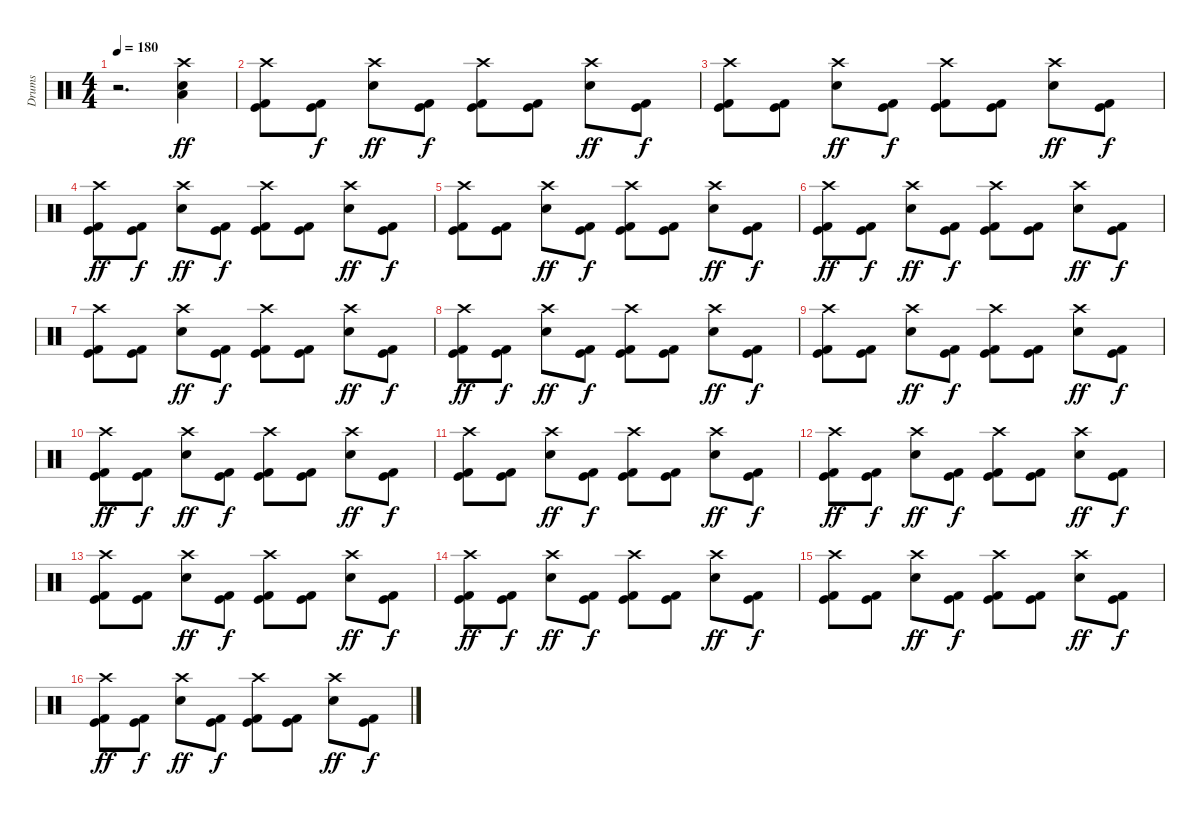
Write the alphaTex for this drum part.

\track ("Drums" "Drums") {instrument percussion}
\staff {score}
\articulation defaults
\ts (4 4)
\tempo 180
\clef neutral
\ks c
r.2{d dy fff} ("Crash high (hit)" "Snare (hit) 2" "Low Tom (hit)").4{dy ff} |
("Crash high (hit)" "Kick (hit)" "Kick (hit) 2").8 ("Kick (hit)" "Kick (hit) 2").8{dy f} ("Crash high (hit)" "Snare (hit) 2").8{dy ff} ("Kick (hit)" "Kick (hit) 2").8{dy f} ("Crash high (hit)" "Kick (hit)" "Kick (hit) 2").8 ("Kick (hit)" "Kick (hit) 2").8 ("Crash high (hit)" "Snare (hit) 2").8{dy ff} ("Kick (hit)" "Kick (hit) 2").8{dy f} |
("Crash high (hit)" "Kick (hit)" "Kick (hit) 2").8 ("Kick (hit)" "Kick (hit) 2").8 ("Crash high (hit)" "Snare (hit) 2").8{dy ff} ("Kick (hit)" "Kick (hit) 2").8{dy f} ("Crash high (hit)" "Kick (hit)" "Kick (hit) 2").8 ("Kick (hit)" "Kick (hit) 2").8 ("Crash high (hit)" "Snare (hit) 2").8{dy ff} ("Kick (hit)" "Kick (hit) 2").8{dy f} |
("Crash high (hit)" "Kick (hit)" "Kick (hit) 2").8{dy ff} ("Kick (hit)" "Kick (hit) 2").8{dy f} ("Crash high (hit)" "Snare (hit) 2").8{dy ff} ("Kick (hit)" "Kick (hit) 2").8{dy f} ("Crash high (hit)" "Kick (hit)" "Kick (hit) 2").8 ("Kick (hit)" "Kick (hit) 2").8 ("Crash high (hit)" "Snare (hit) 2").8{dy ff} ("Kick (hit)" "Kick (hit) 2").8{dy f} |
("Crash high (hit)" "Kick (hit)" "Kick (hit) 2").8 ("Kick (hit)" "Kick (hit) 2").8 ("Crash high (hit)" "Snare (hit) 2").8{dy ff} ("Kick (hit)" "Kick (hit) 2").8{dy f} ("Crash high (hit)" "Kick (hit)" "Kick (hit) 2").8 ("Kick (hit)" "Kick (hit) 2").8 ("Crash high (hit)" "Snare (hit) 2").8{dy ff} ("Kick (hit)" "Kick (hit) 2").8{dy f} |
("Crash high (hit)" "Kick (hit)" "Kick (hit) 2").8{dy ff} ("Kick (hit)" "Kick (hit) 2").8{dy f} ("Crash high (hit)" "Snare (hit) 2").8{dy ff} ("Kick (hit)" "Kick (hit) 2").8{dy f} ("Crash high (hit)" "Kick (hit)" "Kick (hit) 2").8 ("Kick (hit)" "Kick (hit) 2").8 ("Crash high (hit)" "Snare (hit) 2").8{dy ff} ("Kick (hit)" "Kick (hit) 2").8{dy f} |
("Crash high (hit)" "Kick (hit)" "Kick (hit) 2").8 ("Kick (hit)" "Kick (hit) 2").8 ("Crash high (hit)" "Snare (hit) 2").8{dy ff} ("Kick (hit)" "Kick (hit) 2").8{dy f} ("Crash high (hit)" "Kick (hit)" "Kick (hit) 2").8 ("Kick (hit)" "Kick (hit) 2").8 ("Crash high (hit)" "Snare (hit) 2").8{dy ff} ("Kick (hit)" "Kick (hit) 2").8{dy f} |
("Crash high (hit)" "Kick (hit)" "Kick (hit) 2").8{dy ff} ("Kick (hit)" "Kick (hit) 2").8{dy f} ("Crash high (hit)" "Snare (hit) 2").8{dy ff} ("Kick (hit)" "Kick (hit) 2").8{dy f} ("Crash high (hit)" "Kick (hit)" "Kick (hit) 2").8 ("Kick (hit)" "Kick (hit) 2").8 ("Crash high (hit)" "Snare (hit) 2").8{dy ff} ("Kick (hit)" "Kick (hit) 2").8{dy f} |
("Crash high (hit)" "Kick (hit)" "Kick (hit) 2").8 ("Kick (hit)" "Kick (hit) 2").8 ("Crash high (hit)" "Snare (hit) 2").8{dy ff} ("Kick (hit)" "Kick (hit) 2").8{dy f} ("Crash high (hit)" "Kick (hit)" "Kick (hit) 2").8 ("Kick (hit)" "Kick (hit) 2").8 ("Crash high (hit)" "Snare (hit) 2").8{dy ff} ("Kick (hit)" "Kick (hit) 2").8{dy f} |
("Crash high (hit)" "Kick (hit)" "Kick (hit) 2").8{dy ff} ("Kick (hit)" "Kick (hit) 2").8{dy f} ("Crash high (hit)" "Snare (hit) 2").8{dy ff} ("Kick (hit)" "Kick (hit) 2").8{dy f} ("Crash high (hit)" "Kick (hit)" "Kick (hit) 2").8 ("Kick (hit)" "Kick (hit) 2").8 ("Crash high (hit)" "Snare (hit) 2").8{dy ff} ("Kick (hit)" "Kick (hit) 2").8{dy f} |
("Crash high (hit)" "Kick (hit)" "Kick (hit) 2").8 ("Kick (hit)" "Kick (hit) 2").8 ("Crash high (hit)" "Snare (hit) 2").8{dy ff} ("Kick (hit)" "Kick (hit) 2").8{dy f} ("Crash high (hit)" "Kick (hit)" "Kick (hit) 2").8 ("Kick (hit)" "Kick (hit) 2").8 ("Crash high (hit)" "Snare (hit) 2").8{dy ff} ("Kick (hit)" "Kick (hit) 2").8{dy f} |
("Crash high (hit)" "Kick (hit)" "Kick (hit) 2").8{dy ff} ("Kick (hit)" "Kick (hit) 2").8{dy f} ("Crash high (hit)" "Snare (hit) 2").8{dy ff} ("Kick (hit)" "Kick (hit) 2").8{dy f} ("Crash high (hit)" "Kick (hit)" "Kick (hit) 2").8 ("Kick (hit)" "Kick (hit) 2").8 ("Crash high (hit)" "Snare (hit) 2").8{dy ff} ("Kick (hit)" "Kick (hit) 2").8{dy f} |
("Crash high (hit)" "Kick (hit)" "Kick (hit) 2").8 ("Kick (hit)" "Kick (hit) 2").8 ("Crash high (hit)" "Snare (hit) 2").8{dy ff} ("Kick (hit)" "Kick (hit) 2").8{dy f} ("Crash high (hit)" "Kick (hit)" "Kick (hit) 2").8 ("Kick (hit)" "Kick (hit) 2").8 ("Crash high (hit)" "Snare (hit) 2").8{dy ff} ("Kick (hit)" "Kick (hit) 2").8{dy f} |
("Crash high (hit)" "Kick (hit)" "Kick (hit) 2").8{dy ff} ("Kick (hit)" "Kick (hit) 2").8{dy f} ("Crash high (hit)" "Snare (hit) 2").8{dy ff} ("Kick (hit)" "Kick (hit) 2").8{dy f} ("Crash high (hit)" "Kick (hit)" "Kick (hit) 2").8 ("Kick (hit)" "Kick (hit) 2").8 ("Crash high (hit)" "Snare (hit) 2").8{dy ff} ("Kick (hit)" "Kick (hit) 2").8{dy f} |
("Crash high (hit)" "Kick (hit)" "Kick (hit) 2").8 ("Kick (hit)" "Kick (hit) 2").8 ("Crash high (hit)" "Snare (hit) 2").8{dy ff} ("Kick (hit)" "Kick (hit) 2").8{dy f} ("Crash high (hit)" "Kick (hit)" "Kick (hit) 2").8 ("Kick (hit)" "Kick (hit) 2").8 ("Crash high (hit)" "Snare (hit) 2").8{dy ff} ("Kick (hit)" "Kick (hit) 2").8{dy f} |
("Crash high (hit)" "Kick (hit)" "Kick (hit) 2").8{dy ff} ("Kick (hit)" "Kick (hit) 2").8{dy f} ("Crash high (hit)" "Snare (hit) 2").8{dy ff} ("Kick (hit)" "Kick (hit) 2").8{dy f} ("Crash high (hit)" "Kick (hit)" "Kick (hit) 2").8 ("Kick (hit)" "Kick (hit) 2").8 ("Crash high (hit)" "Snare (hit) 2").8{dy ff} ("Kick (hit)" "Kick (hit) 2").8{dy f}
